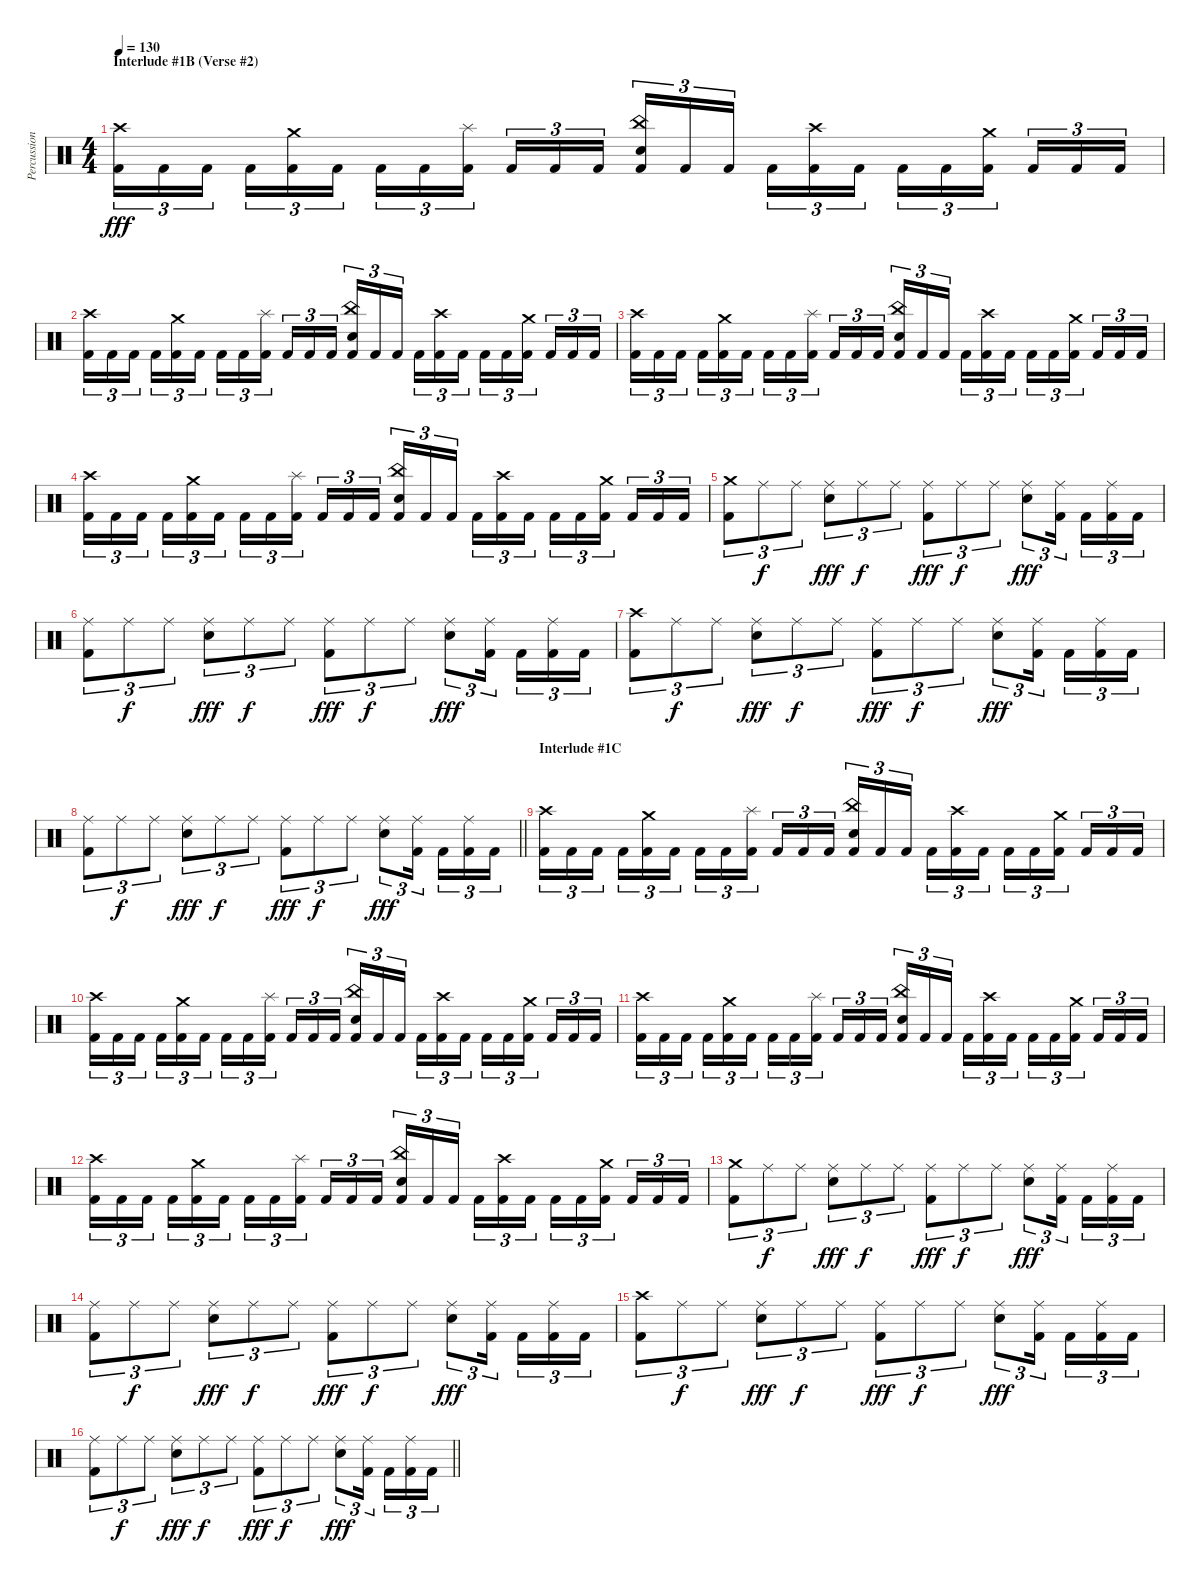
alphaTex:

\track ("Percussions" "Percussion") {instrument percussion}
\staff {score}
\articulation defaults
\ts (4 4)
\section ("" "Interlude #1B (Verse #2)")
\tempo 130
\clef neutral
\ks c
("Crash high (hit)" "Kick (hit) 2").16{tu (3 2) dy fff} "Kick (hit) 2".16{tu (3 2)} "Kick (hit) 2".16{tu (3 2) beam splitsecondary} "Kick (hit) 2".16{tu (3 2)} ("Crash medium (hit)" "Kick (hit) 2").16{tu (3 2)} "Kick (hit) 2".16{tu (3 2)} "Kick (hit) 2".16{tu (3 2)} "Kick (hit) 2".16{tu (3 2)} ("Splash (hit)" "Kick (hit) 2").16{tu (3 2) beam splitsecondary} "Kick (hit) 2".16{tu (3 2)} "Kick (hit) 2".16{tu (3 2)} "Kick (hit) 2".16{tu (3 2)} ("China (hit)" "Snare (hit) 2" "Kick (hit) 2").16{tu (3 2)} "Kick (hit) 2".16{tu (3 2)} "Kick (hit) 2".16{tu (3 2) beam splitsecondary} "Kick (hit) 2".16{tu (3 2)} ("Crash high (hit)" "Kick (hit) 2").16{tu (3 2)} "Kick (hit) 2".16{tu (3 2)} "Kick (hit) 2".16{tu (3 2)} "Kick (hit) 2".16{tu (3 2)} ("Crash medium (hit)" "Kick (hit) 2").16{tu (3 2) beam splitsecondary} "Kick (hit) 2".16{tu (3 2)} "Kick (hit) 2".16{tu (3 2)} "Kick (hit) 2".16{tu (3 2)} |
("Crash high (hit)" "Kick (hit) 2").16{tu (3 2)} "Kick (hit) 2".16{tu (3 2)} "Kick (hit) 2".16{tu (3 2) beam splitsecondary} "Kick (hit) 2".16{tu (3 2)} ("Crash medium (hit)" "Kick (hit) 2").16{tu (3 2)} "Kick (hit) 2".16{tu (3 2)} "Kick (hit) 2".16{tu (3 2)} "Kick (hit) 2".16{tu (3 2)} ("Splash (hit)" "Kick (hit) 2").16{tu (3 2) beam splitsecondary} "Kick (hit) 2".16{tu (3 2)} "Kick (hit) 2".16{tu (3 2)} "Kick (hit) 2".16{tu (3 2)} ("China (hit)" "Snare (hit) 2" "Kick (hit) 2").16{tu (3 2)} "Kick (hit) 2".16{tu (3 2)} "Kick (hit) 2".16{tu (3 2) beam splitsecondary} "Kick (hit) 2".16{tu (3 2)} ("Crash high (hit)" "Kick (hit) 2").16{tu (3 2)} "Kick (hit) 2".16{tu (3 2)} "Kick (hit) 2".16{tu (3 2)} "Kick (hit) 2".16{tu (3 2)} ("Crash medium (hit)" "Kick (hit) 2").16{tu (3 2) beam splitsecondary} "Kick (hit) 2".16{tu (3 2)} "Kick (hit) 2".16{tu (3 2)} "Kick (hit) 2".16{tu (3 2)} |
("Crash high (hit)" "Kick (hit) 2").16{tu (3 2)} "Kick (hit) 2".16{tu (3 2)} "Kick (hit) 2".16{tu (3 2) beam splitsecondary} "Kick (hit) 2".16{tu (3 2)} ("Crash medium (hit)" "Kick (hit) 2").16{tu (3 2)} "Kick (hit) 2".16{tu (3 2)} "Kick (hit) 2".16{tu (3 2)} "Kick (hit) 2".16{tu (3 2)} ("Splash (hit)" "Kick (hit) 2").16{tu (3 2) beam splitsecondary} "Kick (hit) 2".16{tu (3 2)} "Kick (hit) 2".16{tu (3 2)} "Kick (hit) 2".16{tu (3 2)} ("China (hit)" "Snare (hit) 2" "Kick (hit) 2").16{tu (3 2)} "Kick (hit) 2".16{tu (3 2)} "Kick (hit) 2".16{tu (3 2) beam splitsecondary} "Kick (hit) 2".16{tu (3 2)} ("Crash high (hit)" "Kick (hit) 2").16{tu (3 2)} "Kick (hit) 2".16{tu (3 2)} "Kick (hit) 2".16{tu (3 2)} "Kick (hit) 2".16{tu (3 2)} ("Crash medium (hit)" "Kick (hit) 2").16{tu (3 2) beam splitsecondary} "Kick (hit) 2".16{tu (3 2)} "Kick (hit) 2".16{tu (3 2)} "Kick (hit) 2".16{tu (3 2)} |
("Crash high (hit)" "Kick (hit) 2").16{tu (3 2)} "Kick (hit) 2".16{tu (3 2)} "Kick (hit) 2".16{tu (3 2) beam splitsecondary} "Kick (hit) 2".16{tu (3 2)} ("Crash medium (hit)" "Kick (hit) 2").16{tu (3 2)} "Kick (hit) 2".16{tu (3 2)} "Kick (hit) 2".16{tu (3 2)} "Kick (hit) 2".16{tu (3 2)} ("Splash (hit)" "Kick (hit) 2").16{tu (3 2) beam splitsecondary} "Kick (hit) 2".16{tu (3 2)} "Kick (hit) 2".16{tu (3 2)} "Kick (hit) 2".16{tu (3 2)} ("China (hit)" "Snare (hit) 2" "Kick (hit) 2").16{tu (3 2)} "Kick (hit) 2".16{tu (3 2)} "Kick (hit) 2".16{tu (3 2) beam splitsecondary} "Kick (hit) 2".16{tu (3 2)} ("Crash high (hit)" "Kick (hit) 2").16{tu (3 2)} "Kick (hit) 2".16{tu (3 2)} "Kick (hit) 2".16{tu (3 2)} "Kick (hit) 2".16{tu (3 2)} ("Crash medium (hit)" "Kick (hit) 2").16{tu (3 2) beam splitsecondary} "Kick (hit) 2".16{tu (3 2)} "Kick (hit) 2".16{tu (3 2)} "Kick (hit) 2".16{tu (3 2)} |
("Crash medium (hit)" "Kick (hit) 2").8{tu (3 2)} "Ride (middle)".8{tu (3 2) dy f} "Ride (middle)".8{tu (3 2)} ("Ride (middle)" "Snare (hit) 2").8{tu (3 2) dy fff} "Ride (middle)".8{tu (3 2) dy f} "Ride (middle)".8{tu (3 2)} ("Ride (middle)" "Kick (hit) 2").8{tu (3 2) dy fff} "Ride (middle)".8{tu (3 2) dy f} "Ride (middle)".8{tu (3 2)} ("Ride (middle)" "Snare (hit) 2").8{tu (3 2) dy fff} ("Ride (middle)" "Kick (hit) 2").16{tu (3 2) beam splitsecondary} "Kick (hit) 2".16{tu (3 2)} ("Ride (middle)" "Kick (hit) 2").16{tu (3 2)} "Kick (hit) 2".16{tu (3 2)} |
("Ride (middle)" "Kick (hit) 2").8{tu (3 2)} "Ride (middle)".8{tu (3 2) dy f} "Ride (middle)".8{tu (3 2)} ("Ride (middle)" "Snare (hit) 2").8{tu (3 2) dy fff} "Ride (middle)".8{tu (3 2) dy f} "Ride (middle)".8{tu (3 2)} ("Ride (middle)" "Kick (hit) 2").8{tu (3 2) dy fff} "Ride (middle)".8{tu (3 2) dy f} "Ride (middle)".8{tu (3 2)} ("Ride (middle)" "Snare (hit) 2").8{tu (3 2) dy fff} ("Ride (middle)" "Kick (hit) 2").16{tu (3 2) beam splitsecondary} "Kick (hit) 2".16{tu (3 2)} ("Ride (middle)" "Kick (hit) 2").16{tu (3 2)} "Kick (hit) 2".16{tu (3 2)} |
("Crash high (hit)" "Kick (hit) 2").8{tu (3 2)} "Ride (middle)".8{tu (3 2) dy f} "Ride (middle)".8{tu (3 2)} ("Ride (middle)" "Snare (hit) 2").8{tu (3 2) dy fff} "Ride (middle)".8{tu (3 2) dy f} "Ride (middle)".8{tu (3 2)} ("Ride (middle)" "Kick (hit) 2").8{tu (3 2) dy fff} "Ride (middle)".8{tu (3 2) dy f} "Ride (middle)".8{tu (3 2)} ("Ride (middle)" "Snare (hit) 2").8{tu (3 2) dy fff} ("Ride (middle)" "Kick (hit) 2").16{tu (3 2) beam splitsecondary} "Kick (hit) 2".16{tu (3 2)} ("Ride (middle)" "Kick (hit) 2").16{tu (3 2)} "Kick (hit) 2".16{tu (3 2)} |
\barLineRight lightlight
("Ride (middle)" "Kick (hit) 2").8{tu (3 2)} "Ride (middle)".8{tu (3 2) dy f} "Ride (middle)".8{tu (3 2)} ("Ride (middle)" "Snare (hit) 2").8{tu (3 2) dy fff} "Ride (middle)".8{tu (3 2) dy f} "Ride (middle)".8{tu (3 2)} ("Ride (middle)" "Kick (hit) 2").8{tu (3 2) dy fff} "Ride (middle)".8{tu (3 2) dy f} "Ride (middle)".8{tu (3 2)} ("Ride (middle)" "Snare (hit) 2").8{tu (3 2) dy fff} ("Ride (middle)" "Kick (hit) 2").16{tu (3 2) beam splitsecondary} "Kick (hit) 2".16{tu (3 2)} ("Ride (middle)" "Kick (hit) 2").16{tu (3 2)} "Kick (hit) 2".16{tu (3 2)} |
\section ("" "Interlude #1C")
("Crash high (hit)" "Kick (hit) 2").16{tu (3 2)} "Kick (hit) 2".16{tu (3 2)} "Kick (hit) 2".16{tu (3 2) beam splitsecondary} "Kick (hit) 2".16{tu (3 2)} ("Crash medium (hit)" "Kick (hit) 2").16{tu (3 2)} "Kick (hit) 2".16{tu (3 2)} "Kick (hit) 2".16{tu (3 2)} "Kick (hit) 2".16{tu (3 2)} ("Splash (hit)" "Kick (hit) 2").16{tu (3 2) beam splitsecondary} "Kick (hit) 2".16{tu (3 2)} "Kick (hit) 2".16{tu (3 2)} "Kick (hit) 2".16{tu (3 2)} ("China (hit)" "Snare (hit) 2" "Kick (hit) 2").16{tu (3 2)} "Kick (hit) 2".16{tu (3 2)} "Kick (hit) 2".16{tu (3 2) beam splitsecondary} "Kick (hit) 2".16{tu (3 2)} ("Crash high (hit)" "Kick (hit) 2").16{tu (3 2)} "Kick (hit) 2".16{tu (3 2)} "Kick (hit) 2".16{tu (3 2)} "Kick (hit) 2".16{tu (3 2)} ("Crash medium (hit)" "Kick (hit) 2").16{tu (3 2) beam splitsecondary} "Kick (hit) 2".16{tu (3 2)} "Kick (hit) 2".16{tu (3 2)} "Kick (hit) 2".16{tu (3 2)} |
("Crash high (hit)" "Kick (hit) 2").16{tu (3 2)} "Kick (hit) 2".16{tu (3 2)} "Kick (hit) 2".16{tu (3 2) beam splitsecondary} "Kick (hit) 2".16{tu (3 2)} ("Crash medium (hit)" "Kick (hit) 2").16{tu (3 2)} "Kick (hit) 2".16{tu (3 2)} "Kick (hit) 2".16{tu (3 2)} "Kick (hit) 2".16{tu (3 2)} ("Splash (hit)" "Kick (hit) 2").16{tu (3 2) beam splitsecondary} "Kick (hit) 2".16{tu (3 2)} "Kick (hit) 2".16{tu (3 2)} "Kick (hit) 2".16{tu (3 2)} ("China (hit)" "Snare (hit) 2" "Kick (hit) 2").16{tu (3 2)} "Kick (hit) 2".16{tu (3 2)} "Kick (hit) 2".16{tu (3 2) beam splitsecondary} "Kick (hit) 2".16{tu (3 2)} ("Crash high (hit)" "Kick (hit) 2").16{tu (3 2)} "Kick (hit) 2".16{tu (3 2)} "Kick (hit) 2".16{tu (3 2)} "Kick (hit) 2".16{tu (3 2)} ("Crash medium (hit)" "Kick (hit) 2").16{tu (3 2) beam splitsecondary} "Kick (hit) 2".16{tu (3 2)} "Kick (hit) 2".16{tu (3 2)} "Kick (hit) 2".16{tu (3 2)} |
("Crash high (hit)" "Kick (hit) 2").16{tu (3 2)} "Kick (hit) 2".16{tu (3 2)} "Kick (hit) 2".16{tu (3 2) beam splitsecondary} "Kick (hit) 2".16{tu (3 2)} ("Crash medium (hit)" "Kick (hit) 2").16{tu (3 2)} "Kick (hit) 2".16{tu (3 2)} "Kick (hit) 2".16{tu (3 2)} "Kick (hit) 2".16{tu (3 2)} ("Splash (hit)" "Kick (hit) 2").16{tu (3 2) beam splitsecondary} "Kick (hit) 2".16{tu (3 2)} "Kick (hit) 2".16{tu (3 2)} "Kick (hit) 2".16{tu (3 2)} ("China (hit)" "Snare (hit) 2" "Kick (hit) 2").16{tu (3 2)} "Kick (hit) 2".16{tu (3 2)} "Kick (hit) 2".16{tu (3 2) beam splitsecondary} "Kick (hit) 2".16{tu (3 2)} ("Crash high (hit)" "Kick (hit) 2").16{tu (3 2)} "Kick (hit) 2".16{tu (3 2)} "Kick (hit) 2".16{tu (3 2)} "Kick (hit) 2".16{tu (3 2)} ("Crash medium (hit)" "Kick (hit) 2").16{tu (3 2) beam splitsecondary} "Kick (hit) 2".16{tu (3 2)} "Kick (hit) 2".16{tu (3 2)} "Kick (hit) 2".16{tu (3 2)} |
("Crash high (hit)" "Kick (hit) 2").16{tu (3 2)} "Kick (hit) 2".16{tu (3 2)} "Kick (hit) 2".16{tu (3 2) beam splitsecondary} "Kick (hit) 2".16{tu (3 2)} ("Crash medium (hit)" "Kick (hit) 2").16{tu (3 2)} "Kick (hit) 2".16{tu (3 2)} "Kick (hit) 2".16{tu (3 2)} "Kick (hit) 2".16{tu (3 2)} ("Splash (hit)" "Kick (hit) 2").16{tu (3 2) beam splitsecondary} "Kick (hit) 2".16{tu (3 2)} "Kick (hit) 2".16{tu (3 2)} "Kick (hit) 2".16{tu (3 2)} ("China (hit)" "Snare (hit) 2" "Kick (hit) 2").16{tu (3 2)} "Kick (hit) 2".16{tu (3 2)} "Kick (hit) 2".16{tu (3 2) beam splitsecondary} "Kick (hit) 2".16{tu (3 2)} ("Crash high (hit)" "Kick (hit) 2").16{tu (3 2)} "Kick (hit) 2".16{tu (3 2)} "Kick (hit) 2".16{tu (3 2)} "Kick (hit) 2".16{tu (3 2)} ("Crash medium (hit)" "Kick (hit) 2").16{tu (3 2) beam splitsecondary} "Kick (hit) 2".16{tu (3 2)} "Kick (hit) 2".16{tu (3 2)} "Kick (hit) 2".16{tu (3 2)} |
("Crash medium (hit)" "Kick (hit) 2").8{tu (3 2)} "Ride (middle)".8{tu (3 2) dy f} "Ride (middle)".8{tu (3 2)} ("Ride (middle)" "Snare (hit) 2").8{tu (3 2) dy fff} "Ride (middle)".8{tu (3 2) dy f} "Ride (middle)".8{tu (3 2)} ("Ride (middle)" "Kick (hit) 2").8{tu (3 2) dy fff} "Ride (middle)".8{tu (3 2) dy f} "Ride (middle)".8{tu (3 2)} ("Ride (middle)" "Snare (hit) 2").8{tu (3 2) dy fff} ("Ride (middle)" "Kick (hit) 2").16{tu (3 2) beam splitsecondary} "Kick (hit) 2".16{tu (3 2)} ("Ride (middle)" "Kick (hit) 2").16{tu (3 2)} "Kick (hit) 2".16{tu (3 2)} |
("Ride (middle)" "Kick (hit) 2").8{tu (3 2)} "Ride (middle)".8{tu (3 2) dy f} "Ride (middle)".8{tu (3 2)} ("Ride (middle)" "Snare (hit) 2").8{tu (3 2) dy fff} "Ride (middle)".8{tu (3 2) dy f} "Ride (middle)".8{tu (3 2)} ("Ride (middle)" "Kick (hit) 2").8{tu (3 2) dy fff} "Ride (middle)".8{tu (3 2) dy f} "Ride (middle)".8{tu (3 2)} ("Ride (middle)" "Snare (hit) 2").8{tu (3 2) dy fff} ("Ride (middle)" "Kick (hit) 2").16{tu (3 2) beam splitsecondary} "Kick (hit) 2".16{tu (3 2)} ("Ride (middle)" "Kick (hit) 2").16{tu (3 2)} "Kick (hit) 2".16{tu (3 2)} |
("Crash high (hit)" "Kick (hit) 2").8{tu (3 2)} "Ride (middle)".8{tu (3 2) dy f} "Ride (middle)".8{tu (3 2)} ("Ride (middle)" "Snare (hit) 2").8{tu (3 2) dy fff} "Ride (middle)".8{tu (3 2) dy f} "Ride (middle)".8{tu (3 2)} ("Ride (middle)" "Kick (hit) 2").8{tu (3 2) dy fff} "Ride (middle)".8{tu (3 2) dy f} "Ride (middle)".8{tu (3 2)} ("Ride (middle)" "Snare (hit) 2").8{tu (3 2) dy fff} ("Ride (middle)" "Kick (hit) 2").16{tu (3 2) beam splitsecondary} "Kick (hit) 2".16{tu (3 2)} ("Ride (middle)" "Kick (hit) 2").16{tu (3 2)} "Kick (hit) 2".16{tu (3 2)} |
\barLineRight lightlight
("Ride (middle)" "Kick (hit) 2").8{tu (3 2)} "Ride (middle)".8{tu (3 2) dy f} "Ride (middle)".8{tu (3 2)} ("Ride (middle)" "Snare (hit) 2").8{tu (3 2) dy fff} "Ride (middle)".8{tu (3 2) dy f} "Ride (middle)".8{tu (3 2)} ("Ride (middle)" "Kick (hit) 2").8{tu (3 2) dy fff} "Ride (middle)".8{tu (3 2) dy f} "Ride (middle)".8{tu (3 2)} ("Ride (middle)" "Snare (hit) 2").8{tu (3 2) dy fff} ("Ride (middle)" "Kick (hit) 2").16{tu (3 2) beam splitsecondary} "Kick (hit) 2".16{tu (3 2)} ("Ride (middle)" "Kick (hit) 2").16{tu (3 2)} "Kick (hit) 2".16{tu (3 2)}
